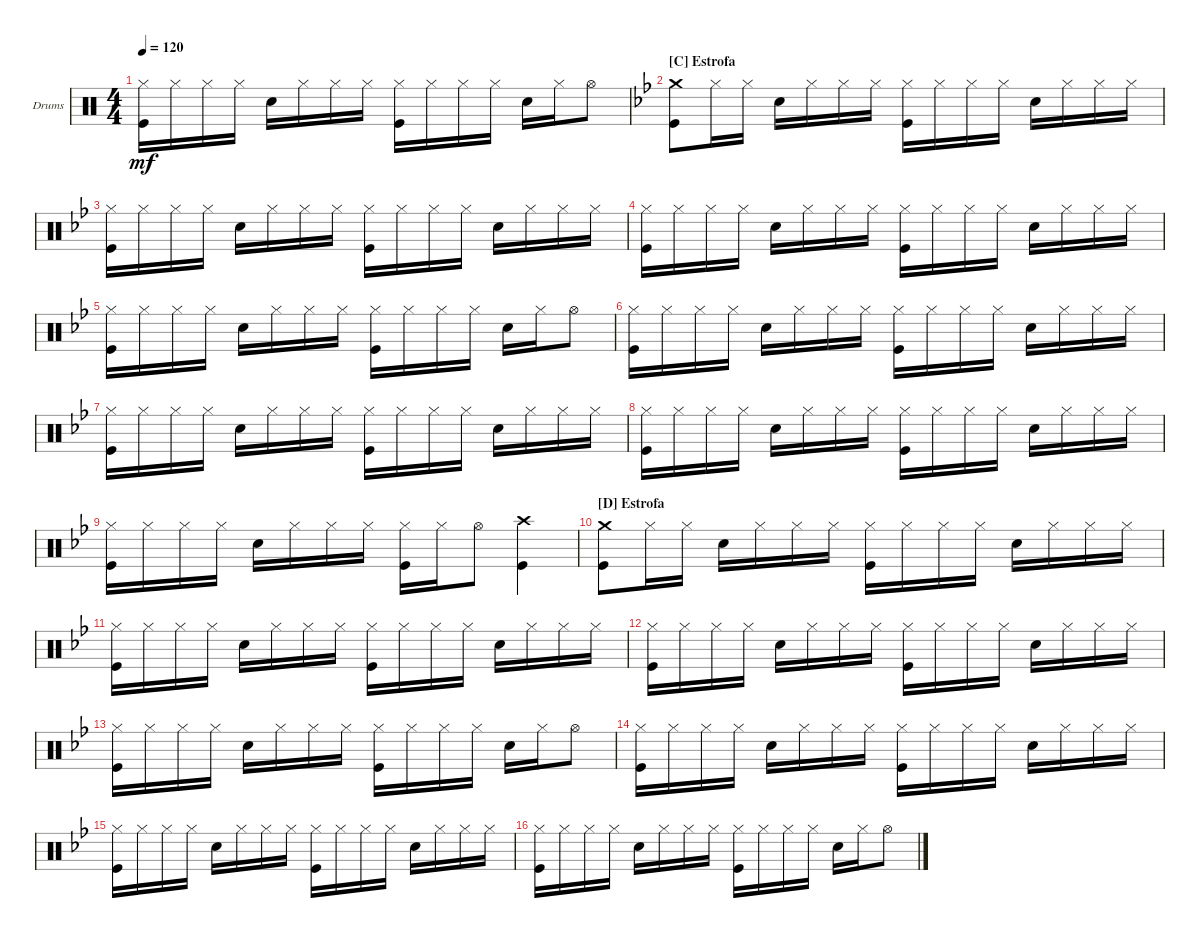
\bracketExtendMode groupsimilarinstruments
\firstSystemTrackNameOrientation horizontal
\otherSystemsTrackNameOrientation horizontal
\track ("Drums Ghoul" "Drums") {instrument percussion}
\staff {score}
\articulation defaults
\ts (4 4)
\tempo 120
\clef neutral
\ks c
("Hi-Hat (closed)" "Kick (hit)").16{dy mf} "Hi-Hat (closed)".16 "Hi-Hat (closed)".16 "Hi-Hat (closed)".16 "Snare (hit) 2".16 "Hi-Hat (closed)".16 "Hi-Hat (closed)".16 "Hi-Hat (closed)".16 ("Hi-Hat (closed)" "Kick (hit)").16 "Hi-Hat (closed)".16 "Hi-Hat (closed)".16 "Hi-Hat (closed)".16 "Snare (hit) 2".16 "Hi-Hat (closed)".16 "Hi-Hat (open)".8 |
\section ("C" "Estrofa")
\ks bb
("Kick (hit)" "Crash medium (hit)").8 "Hi-Hat (closed)".16 "Hi-Hat (closed)".16 "Snare (hit) 2".16 "Hi-Hat (closed)".16 "Hi-Hat (closed)".16 "Hi-Hat (closed)".16 ("Hi-Hat (closed)" "Kick (hit)").16 "Hi-Hat (closed)".16 "Hi-Hat (closed)".16 "Hi-Hat (closed)".16 "Snare (hit) 2".16 "Hi-Hat (closed)".16 "Hi-Hat (closed)".16 "Hi-Hat (closed)".16 |
("Hi-Hat (closed)" "Kick (hit)").16 "Hi-Hat (closed)".16 "Hi-Hat (closed)".16 "Hi-Hat (closed)".16 "Snare (hit) 2".16 "Hi-Hat (closed)".16 "Hi-Hat (closed)".16 "Hi-Hat (closed)".16 ("Hi-Hat (closed)" "Kick (hit)").16 "Hi-Hat (closed)".16 "Hi-Hat (closed)".16 "Hi-Hat (closed)".16 "Snare (hit) 2".16 "Hi-Hat (closed)".16 "Hi-Hat (closed)".16 "Hi-Hat (closed)".16 |
("Hi-Hat (closed)" "Kick (hit)").16 "Hi-Hat (closed)".16 "Hi-Hat (closed)".16 "Hi-Hat (closed)".16 "Snare (hit) 2".16 "Hi-Hat (closed)".16 "Hi-Hat (closed)".16 "Hi-Hat (closed)".16 ("Hi-Hat (closed)" "Kick (hit)").16 "Hi-Hat (closed)".16 "Hi-Hat (closed)".16 "Hi-Hat (closed)".16 "Snare (hit) 2".16 "Hi-Hat (closed)".16 "Hi-Hat (closed)".16 "Hi-Hat (closed)".16 |
("Hi-Hat (closed)" "Kick (hit)").16 "Hi-Hat (closed)".16 "Hi-Hat (closed)".16 "Hi-Hat (closed)".16 "Snare (hit) 2".16 "Hi-Hat (closed)".16 "Hi-Hat (closed)".16 "Hi-Hat (closed)".16 ("Hi-Hat (closed)" "Kick (hit)").16 "Hi-Hat (closed)".16 "Hi-Hat (closed)".16 "Hi-Hat (closed)".16 "Snare (hit) 2".16 "Hi-Hat (closed)".16 "Hi-Hat (open)".8 |
("Kick (hit)" "Hi-Hat (closed)").16 "Hi-Hat (closed)".16 "Hi-Hat (closed)".16 "Hi-Hat (closed)".16 "Snare (hit) 2".16 "Hi-Hat (closed)".16 "Hi-Hat (closed)".16 "Hi-Hat (closed)".16 ("Hi-Hat (closed)" "Kick (hit)").16 "Hi-Hat (closed)".16 "Hi-Hat (closed)".16 "Hi-Hat (closed)".16 "Snare (hit) 2".16 "Hi-Hat (closed)".16 "Hi-Hat (closed)".16 "Hi-Hat (closed)".16 |
("Hi-Hat (closed)" "Kick (hit)").16 "Hi-Hat (closed)".16 "Hi-Hat (closed)".16 "Hi-Hat (closed)".16 "Snare (hit) 2".16 "Hi-Hat (closed)".16 "Hi-Hat (closed)".16 "Hi-Hat (closed)".16 ("Hi-Hat (closed)" "Kick (hit)").16 "Hi-Hat (closed)".16 "Hi-Hat (closed)".16 "Hi-Hat (closed)".16 "Snare (hit) 2".16 "Hi-Hat (closed)".16 "Hi-Hat (closed)".16 "Hi-Hat (closed)".16 |
("Hi-Hat (closed)" "Kick (hit)").16 "Hi-Hat (closed)".16 "Hi-Hat (closed)".16 "Hi-Hat (closed)".16 "Snare (hit) 2".16 "Hi-Hat (closed)".16 "Hi-Hat (closed)".16 "Hi-Hat (closed)".16 ("Hi-Hat (closed)" "Kick (hit)").16 "Hi-Hat (closed)".16 "Hi-Hat (closed)".16 "Hi-Hat (closed)".16 "Snare (hit) 2".16 "Hi-Hat (closed)".16 "Hi-Hat (closed)".16 "Hi-Hat (closed)".16 |
("Hi-Hat (closed)" "Kick (hit)").16 "Hi-Hat (closed)".16 "Hi-Hat (closed)".16 "Hi-Hat (closed)".16 "Snare (hit) 2".16 "Hi-Hat (closed)".16 "Hi-Hat (closed)".16 "Hi-Hat (closed)".16 ("Hi-Hat (closed)" "Kick (hit)").16 "Hi-Hat (closed)".16 "Hi-Hat (open)".8 ("Kick (hit)" "Crash high (hit)").4 |
\section ("D" "Estrofa")
("Kick (hit)" "Crash medium (hit)").8 "Hi-Hat (closed)".16 "Hi-Hat (closed)".16 "Snare (hit) 2".16 "Hi-Hat (closed)".16 "Hi-Hat (closed)".16 "Hi-Hat (closed)".16 ("Hi-Hat (closed)" "Kick (hit)").16 "Hi-Hat (closed)".16 "Hi-Hat (closed)".16 "Hi-Hat (closed)".16 "Snare (hit) 2".16 "Hi-Hat (closed)".16 "Hi-Hat (closed)".16 "Hi-Hat (closed)".16 |
("Hi-Hat (closed)" "Kick (hit)").16 "Hi-Hat (closed)".16 "Hi-Hat (closed)".16 "Hi-Hat (closed)".16 "Snare (hit) 2".16 "Hi-Hat (closed)".16 "Hi-Hat (closed)".16 "Hi-Hat (closed)".16 ("Hi-Hat (closed)" "Kick (hit)").16 "Hi-Hat (closed)".16 "Hi-Hat (closed)".16 "Hi-Hat (closed)".16 "Snare (hit) 2".16 "Hi-Hat (closed)".16 "Hi-Hat (closed)".16 "Hi-Hat (closed)".16 |
("Hi-Hat (closed)" "Kick (hit)").16 "Hi-Hat (closed)".16 "Hi-Hat (closed)".16 "Hi-Hat (closed)".16 "Snare (hit) 2".16 "Hi-Hat (closed)".16 "Hi-Hat (closed)".16 "Hi-Hat (closed)".16 ("Hi-Hat (closed)" "Kick (hit)").16 "Hi-Hat (closed)".16 "Hi-Hat (closed)".16 "Hi-Hat (closed)".16 "Snare (hit) 2".16 "Hi-Hat (closed)".16 "Hi-Hat (closed)".16 "Hi-Hat (closed)".16 |
("Hi-Hat (closed)" "Kick (hit)").16 "Hi-Hat (closed)".16 "Hi-Hat (closed)".16 "Hi-Hat (closed)".16 "Snare (hit) 2".16 "Hi-Hat (closed)".16 "Hi-Hat (closed)".16 "Hi-Hat (closed)".16 ("Hi-Hat (closed)" "Kick (hit)").16 "Hi-Hat (closed)".16 "Hi-Hat (closed)".16 "Hi-Hat (closed)".16 "Snare (hit) 2".16 "Hi-Hat (closed)".16 "Hi-Hat (open)".8 |
("Kick (hit)" "Hi-Hat (closed)").16 "Hi-Hat (closed)".16 "Hi-Hat (closed)".16 "Hi-Hat (closed)".16 "Snare (hit) 2".16 "Hi-Hat (closed)".16 "Hi-Hat (closed)".16 "Hi-Hat (closed)".16 ("Hi-Hat (closed)" "Kick (hit)").16 "Hi-Hat (closed)".16 "Hi-Hat (closed)".16 "Hi-Hat (closed)".16 "Snare (hit) 2".16 "Hi-Hat (closed)".16 "Hi-Hat (closed)".16 "Hi-Hat (closed)".16 |
("Hi-Hat (closed)" "Kick (hit)").16 "Hi-Hat (closed)".16 "Hi-Hat (closed)".16 "Hi-Hat (closed)".16 "Snare (hit) 2".16 "Hi-Hat (closed)".16 "Hi-Hat (closed)".16 "Hi-Hat (closed)".16 ("Hi-Hat (closed)" "Kick (hit)").16 "Hi-Hat (closed)".16 "Hi-Hat (closed)".16 "Hi-Hat (closed)".16 "Snare (hit) 2".16 "Hi-Hat (closed)".16 "Hi-Hat (closed)".16 "Hi-Hat (closed)".16 |
("Hi-Hat (closed)" "Kick (hit)").16 "Hi-Hat (closed)".16 "Hi-Hat (closed)".16 "Hi-Hat (closed)".16 "Snare (hit) 2".16 "Hi-Hat (closed)".16 "Hi-Hat (closed)".16 "Hi-Hat (closed)".16 ("Hi-Hat (closed)" "Kick (hit)").16 "Hi-Hat (closed)".16 "Hi-Hat (closed)".16 "Hi-Hat (closed)".16 "Snare (hit) 2".16 "Hi-Hat (closed)".16 "Hi-Hat (open)".8
